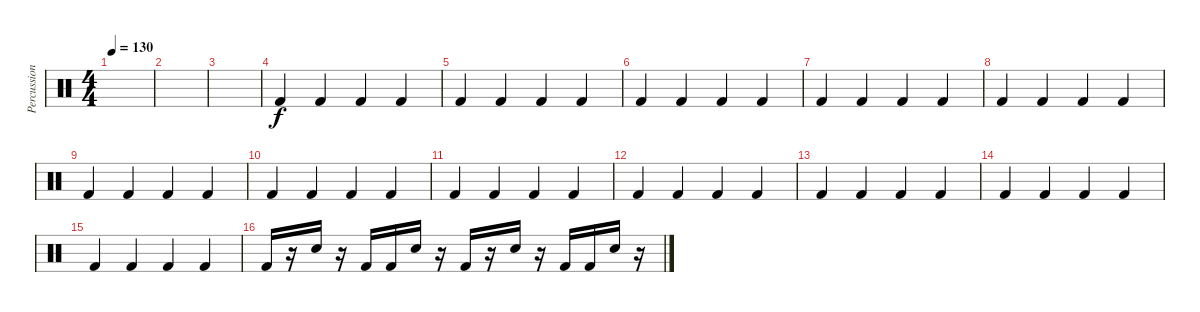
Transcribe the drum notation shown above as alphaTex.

\track ("Percussion" "Percussion") {instrument percussion}
\staff {score}
\articulation defaults
\ts (4 4)
\tempo 130
\clef neutral
\ks c
|
|
|
"Kick (hit) 2".4 "Kick (hit) 2".4 "Kick (hit) 2".4 "Kick (hit) 2".4 |
"Kick (hit) 2".4 "Kick (hit) 2".4 "Kick (hit) 2".4 "Kick (hit) 2".4 |
"Kick (hit) 2".4 "Kick (hit) 2".4 "Kick (hit) 2".4 "Kick (hit) 2".4 |
"Kick (hit) 2".4 "Kick (hit) 2".4 "Kick (hit) 2".4 "Kick (hit) 2".4 |
"Kick (hit) 2".4 "Kick (hit) 2".4 "Kick (hit) 2".4 "Kick (hit) 2".4 |
"Kick (hit) 2".4 "Kick (hit) 2".4 "Kick (hit) 2".4 "Kick (hit) 2".4 |
"Kick (hit) 2".4 "Kick (hit) 2".4 "Kick (hit) 2".4 "Kick (hit) 2".4 |
"Kick (hit) 2".4 "Kick (hit) 2".4 "Kick (hit) 2".4 "Kick (hit) 2".4 |
"Kick (hit) 2".4 "Kick (hit) 2".4 "Kick (hit) 2".4 "Kick (hit) 2".4 |
"Kick (hit) 2".4 "Kick (hit) 2".4 "Kick (hit) 2".4 "Kick (hit) 2".4 |
"Kick (hit) 2".4 "Kick (hit) 2".4 "Kick (hit) 2".4 "Kick (hit) 2".4 |
"Kick (hit) 2".4 "Kick (hit) 2".4 "Kick (hit) 2".4 "Kick (hit) 2".4 |
"Kick (hit) 2".16 r.16 "Snare (hit) 2".16 r.16 "Kick (hit) 2".16 "Kick (hit) 2".16 "Snare (hit) 2".16 r.16 "Kick (hit) 2".16 r.16 "Snare (hit) 2".16 r.16 "Kick (hit) 2".16 "Kick (hit) 2".16 "Snare (hit) 2".16 r.16
